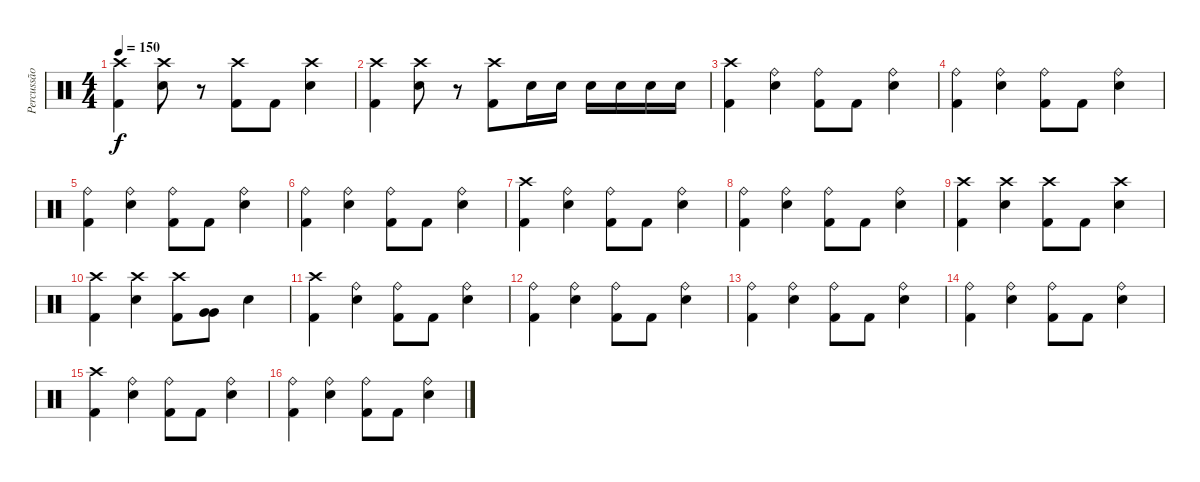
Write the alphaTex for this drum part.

\track ("Percussão" "Percussão") {instrument percussion}
\staff {score}
\articulation defaults
\ts (4 4)
\tempo 150
\clef neutral
\ks c
("Crash high (hit)" "Kick (hit) 2").4{dy f} ("Crash high (hit)" "Electric Snare (hit)").8 r.8 ("Crash high (hit)" "Kick (hit) 2").8 "Kick (hit) 2".8 ("Crash high (hit)" "Electric Snare (hit)").4 |
("Crash high (hit)" "Kick (hit) 2").4 ("Crash high (hit)" "Electric Snare (hit)").8 r.8 ("Crash high (hit)" "Kick (hit) 2").8 "Electric Snare (hit)".16 "Electric Snare (hit)".16 "Electric Snare (hit)".16 "Electric Snare (hit)".16 "Electric Snare (hit)".16 "Electric Snare (hit)".16 |
("Crash high (hit)" "Kick (hit) 2").4 ("Ride (bell)" "Electric Snare (hit)").4 ("Ride (bell)" "Kick (hit) 2").8 "Kick (hit) 2".8 ("Ride (bell)" "Electric Snare (hit)").4 |
("Ride (bell)" "Kick (hit) 2").4 ("Ride (bell)" "Electric Snare (hit)").4 ("Ride (bell)" "Kick (hit) 2").8 "Kick (hit) 2".8 ("Ride (bell)" "Electric Snare (hit)").4 |
("Ride (bell)" "Kick (hit) 2").4 ("Ride (bell)" "Electric Snare (hit)").4 ("Ride (bell)" "Kick (hit) 2").8 "Kick (hit) 2".8 ("Ride (bell)" "Electric Snare (hit)").4 |
("Ride (bell)" "Kick (hit) 2").4 ("Ride (bell)" "Electric Snare (hit)").4 ("Ride (bell)" "Kick (hit) 2").8 "Kick (hit) 2".8 ("Ride (bell)" "Electric Snare (hit)").4 |
("Crash high (hit)" "Kick (hit) 2").4 ("Ride (bell)" "Electric Snare (hit)").4 ("Ride (bell)" "Kick (hit) 2").8 "Kick (hit) 2".8 ("Ride (bell)" "Electric Snare (hit)").4 |
("Ride (bell)" "Kick (hit) 2").4 ("Ride (bell)" "Electric Snare (hit)").4 ("Ride (bell)" "Kick (hit) 2").8 "Kick (hit) 2".8 ("Ride (bell)" "Electric Snare (hit)").4 |
("Crash high (hit)" "Kick (hit) 2").4 ("Crash high (hit)" "Electric Snare (hit)").4 ("Crash high (hit)" "Kick (hit) 2").8 "Kick (hit) 2".8 ("Crash high (hit)" "Electric Snare (hit)").4 |
("Crash high (hit)" "Kick (hit) 2").4 ("Crash high (hit)" "Electric Snare (hit)").4 ("Crash high (hit)" "Kick (hit) 2").8 ("Very Low Tom (hit)" "Very Low Tom (hit)").8 "Electric Snare (hit)".4 |
("Crash high (hit)" "Kick (hit) 2").4 ("Ride (bell)" "Electric Snare (hit)").4 ("Ride (bell)" "Kick (hit) 2").8 "Kick (hit) 2".8 ("Ride (bell)" "Electric Snare (hit)").4 |
("Ride (bell)" "Kick (hit) 2").4 ("Ride (bell)" "Electric Snare (hit)").4 ("Ride (bell)" "Kick (hit) 2").8 "Kick (hit) 2".8 ("Ride (bell)" "Electric Snare (hit)").4 |
("Ride (bell)" "Kick (hit) 2").4 ("Ride (bell)" "Electric Snare (hit)").4 ("Ride (bell)" "Kick (hit) 2").8 "Kick (hit) 2".8 ("Ride (bell)" "Electric Snare (hit)").4 |
("Ride (bell)" "Kick (hit) 2").4 ("Ride (bell)" "Electric Snare (hit)").4 ("Ride (bell)" "Kick (hit) 2").8 "Kick (hit) 2".8 ("Ride (bell)" "Electric Snare (hit)").4 |
("Crash high (hit)" "Kick (hit) 2").4 ("Ride (bell)" "Electric Snare (hit)").4 ("Ride (bell)" "Kick (hit) 2").8 "Kick (hit) 2".8 ("Ride (bell)" "Electric Snare (hit)").4 |
("Ride (bell)" "Kick (hit) 2").4 ("Ride (bell)" "Electric Snare (hit)").4 ("Ride (bell)" "Kick (hit) 2").8 "Kick (hit) 2".8 ("Ride (bell)" "Electric Snare (hit)").4
